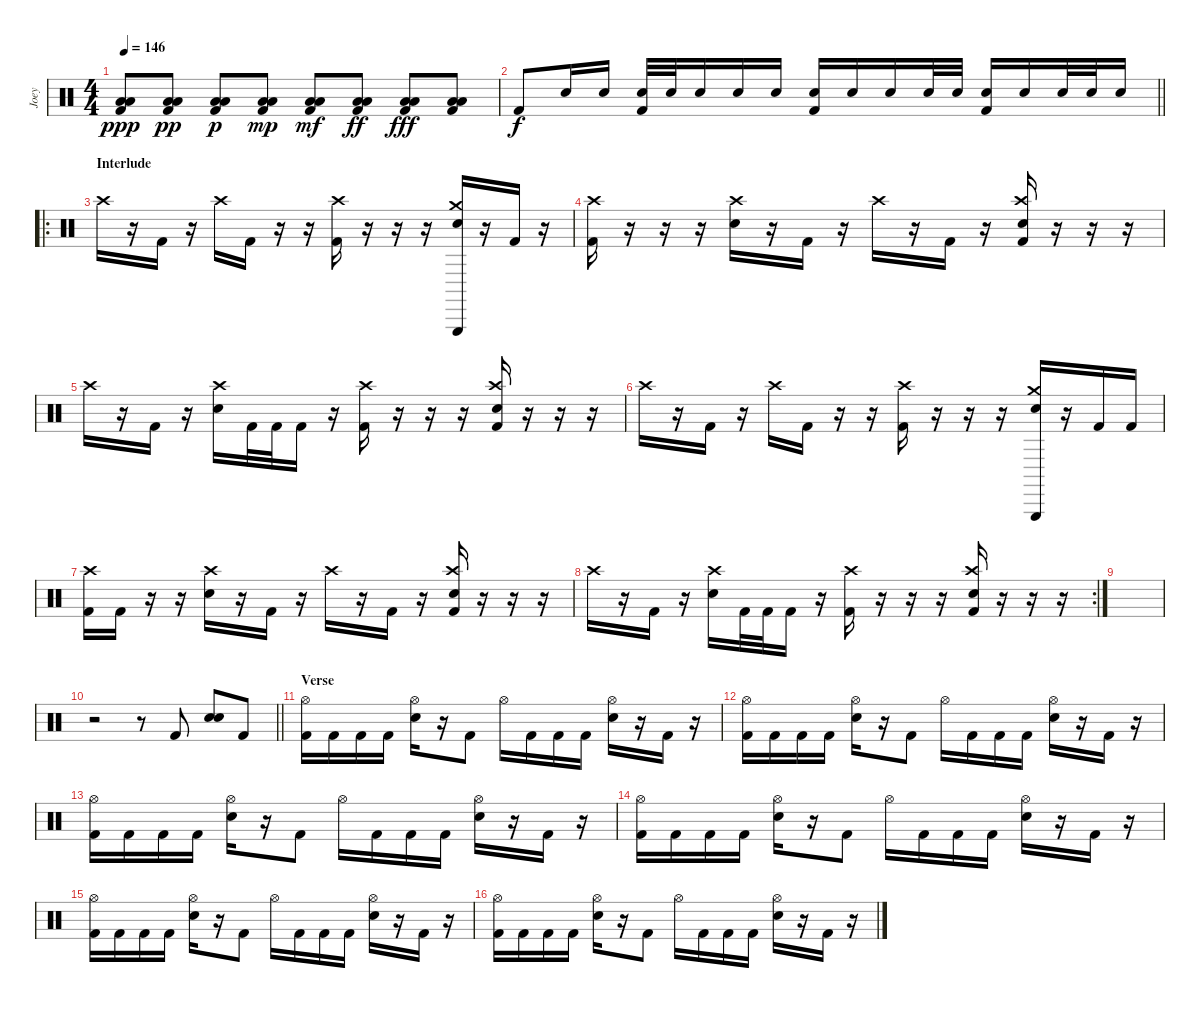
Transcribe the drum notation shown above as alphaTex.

\track ("Joey" "Joey") {instrument percussion}
\staff {score}
\articulation defaults
\ts (4 4)
\tempo 146
\clef neutral
\ks c
("Low Tom (hit)" "Low Floor Tom (hit)" "Kick (hit) 2").8{dy ppp} ("Low Tom (hit)" "Low Floor Tom (hit)" "Kick (hit) 2").8{dy pp} ("Low Tom (hit)" "Low Floor Tom (hit)" "Kick (hit) 2").8{dy p} ("Low Tom (hit)" "Low Floor Tom (hit)" "Kick (hit) 2").8{dy mp} ("Low Tom (hit)" "Low Floor Tom (hit)" "Kick (hit) 2").8{dy mf} ("Low Tom (hit)" "Low Floor Tom (hit)" "Kick (hit) 2").8{dy ff} ("Low Tom (hit)" "Low Floor Tom (hit)" "Kick (hit) 2").8{dy fff} ("Low Tom (hit)" "Low Floor Tom (hit)" "Kick (hit) 2").8 |
\barLineRight lightlight "Kick (hit) 2".8{dy f} "Electric Snare (hit)".16 "Electric Snare (hit)".16
("Kick (hit) 2" "Electric Snare (hit)").32 "Electric Snare (hit)".32 "Electric Snare (hit)".16 "Electric Snare (hit)".16 "Electric Snare (hit)".16 ("Kick (hit) 2" "Electric Snare (hit)").16 "Electric Snare (hit)".16 "Electric Snare (hit)".16 "Electric Snare (hit)".32 "Electric Snare (hit)".32 ("Kick (hit) 2" "Electric Snare (hit)").16 "Electric Snare (hit)".16 "Electric Snare (hit)".32 "Electric Snare (hit)".32 "Electric Snare (hit)".16 |
\ro
\section ("" "Interlude")
"Crash high (hit)".16 r.16 "Kick (hit) 2".16 r.16 "Crash high (hit)".16 "Kick (hit) 2".16 r.16 r.16 ("Crash high (hit)" "Kick (hit) 2").16 r.16 r.16 r.16 ("Triangle (hit)" "Crash medium (hit)" "Snare (hit) 2").16 r.16 "Kick (hit) 2".16 r.16 |
("Crash high (hit)" "Kick (hit) 2").16 r.16 r.16 r.16 ("Crash high (hit)" "Snare (hit) 2").16 r.16 "Kick (hit) 2".16 r.16 "Crash high (hit)".16 r.16 "Kick (hit) 2".16 r.16 ("Crash high (hit)" "Snare (hit) 2" "Kick (hit) 2").16 r.16 r.16 r.16 |
"Crash high (hit)".16 r.16 "Kick (hit) 2".16 r.16 ("Crash high (hit)" "Snare (hit) 2").16 "Kick (hit) 2".32 "Kick (hit) 2".32 "Kick (hit) 2".16 r.16 ("Crash high (hit)" "Kick (hit) 2").16 r.16 r.16 r.16 ("Crash high (hit)" "Snare (hit) 2" "Kick (hit) 2").16 r.16 r.16 r.16 |
"Crash high (hit)".16 r.16 "Kick (hit) 2".16 r.16 "Crash high (hit)".16 "Kick (hit) 2".16 r.16 r.16 ("Crash high (hit)" "Kick (hit) 2").16 r.16 r.16 r.16 ("Triangle (hit)" "Crash medium (hit)" "Snare (hit) 2").16 r.16 "Kick (hit) 2".16 "Kick (hit) 2".16 |
("Crash high (hit)" "Kick (hit) 2").16 "Kick (hit) 2".16 r.16 r.16 ("Crash high (hit)" "Snare (hit) 2").16 r.16 "Kick (hit) 2".16 r.16 "Crash high (hit)".16 r.16 "Kick (hit) 2".16 r.16 ("Crash high (hit)" "Snare (hit) 2" "Kick (hit) 2").16 r.16 r.16 r.16 |
\rc 2 "Crash high (hit)".16
r.16 "Kick (hit) 2".16 r.16 ("Crash high (hit)" "Snare (hit) 2").16 "Kick (hit) 2".32 "Kick (hit) 2".32 "Kick (hit) 2".16 r.16 ("Crash high (hit)" "Kick (hit) 2").16 r.16 r.16 r.16 ("Crash high (hit)" "Snare (hit) 2" "Kick (hit) 2").16 r.16 r.16 r.16 |
|
\barLineRight lightlight
r.2 r.8 "Kick (hit) 2".8 ("Snare (hit) 2" "Snare (hit) 2").8{bd 240} "Kick (hit) 2".8 |
\section ("" "Verse")
("Hi-Hat (open)" "Kick (hit) 2").16 "Kick (hit) 2".16 "Kick (hit) 2".16 "Kick (hit) 2".16 ("Hi-Hat (open)" "Snare (hit) 2").16 r.16 "Kick (hit) 2".8 "Hi-Hat (open)".16 "Kick (hit) 2".16 "Kick (hit) 2".16 "Kick (hit) 2".16 ("Hi-Hat (open)" "Snare (hit) 2").16 r.16 "Kick (hit) 2".16 r.16 |
("Hi-Hat (open)" "Kick (hit) 2").16 "Kick (hit) 2".16 "Kick (hit) 2".16 "Kick (hit) 2".16 ("Hi-Hat (open)" "Snare (hit) 2").16 r.16 "Kick (hit) 2".8 "Hi-Hat (open)".16 "Kick (hit) 2".16 "Kick (hit) 2".16 "Kick (hit) 2".16 ("Hi-Hat (open)" "Snare (hit) 2").16 r.16 "Kick (hit) 2".16 r.16 |
("Hi-Hat (open)" "Kick (hit) 2").16 "Kick (hit) 2".16 "Kick (hit) 2".16 "Kick (hit) 2".16 ("Hi-Hat (open)" "Snare (hit) 2").16 r.16 "Kick (hit) 2".8 "Hi-Hat (open)".16 "Kick (hit) 2".16 "Kick (hit) 2".16 "Kick (hit) 2".16 ("Hi-Hat (open)" "Snare (hit) 2").16 r.16 "Kick (hit) 2".16 r.16 |
("Hi-Hat (open)" "Kick (hit) 2").16 "Kick (hit) 2".16 "Kick (hit) 2".16 "Kick (hit) 2".16 ("Hi-Hat (open)" "Snare (hit) 2").16 r.16 "Kick (hit) 2".8 "Hi-Hat (open)".16 "Kick (hit) 2".16 "Kick (hit) 2".16 "Kick (hit) 2".16 ("Hi-Hat (open)" "Snare (hit) 2").16 r.16 "Kick (hit) 2".16 r.16 |
("Hi-Hat (open)" "Kick (hit) 2").16 "Kick (hit) 2".16 "Kick (hit) 2".16 "Kick (hit) 2".16 ("Hi-Hat (open)" "Snare (hit) 2").16 r.16 "Kick (hit) 2".8 "Hi-Hat (open)".16 "Kick (hit) 2".16 "Kick (hit) 2".16 "Kick (hit) 2".16 ("Hi-Hat (open)" "Snare (hit) 2").16 r.16 "Kick (hit) 2".16 r.16 |
("Hi-Hat (open)" "Kick (hit) 2").16 "Kick (hit) 2".16 "Kick (hit) 2".16 "Kick (hit) 2".16 ("Hi-Hat (open)" "Snare (hit) 2").16 r.16 "Kick (hit) 2".8 "Hi-Hat (open)".16 "Kick (hit) 2".16 "Kick (hit) 2".16 "Kick (hit) 2".16 ("Hi-Hat (open)" "Snare (hit) 2").16 r.16 "Kick (hit) 2".16 r.16
